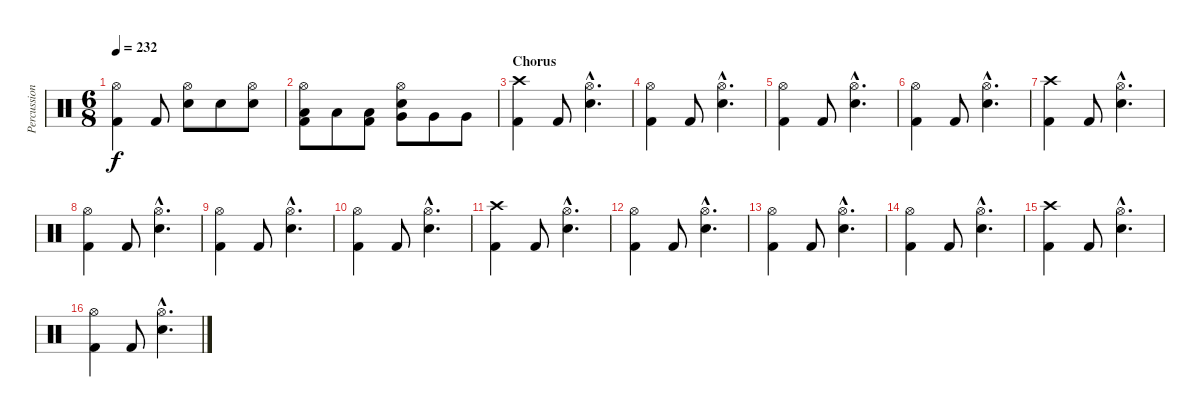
\track ("Percussion" "Percussion") {instrument percussion}
\staff {score}
\articulation defaults
\ts (6 8)
\tempo 232
\clef neutral
\ks c
("Hi-Hat (open)" "Kick (hit) 2").4{dy f} "Kick (hit) 2".8 ("Hi-Hat (open)" "Electric Snare (hit)").8 "Electric Snare (hit)".8 ("Hi-Hat (open)" "Electric Snare (hit)").8 |
("Hi-Hat (open)" "Low Tom (hit)" "Kick (hit) 2").8 "Low Tom (hit)".8 ("Low Tom (hit)" "Kick (hit) 2").8 ("Hi-Hat (open)" "Electric Snare (hit)" "Very Low Tom (hit)").8 "Very Low Tom (hit)".8 "Very Low Tom (hit)".8 |
\section ("" "Chorus")
("Crash high (hit)" "Kick (hit) 2").4 "Kick (hit) 2".8 ("Hi-Hat (open)"{hac} "Electric Snare (hit)"{hac}).4{d} |
("Hi-Hat (open)" "Kick (hit) 2").4 "Kick (hit) 2".8 ("Hi-Hat (open)"{hac} "Electric Snare (hit)"{hac}).4{d} |
("Hi-Hat (open)" "Kick (hit) 2").4 "Kick (hit) 2".8 ("Hi-Hat (open)"{hac} "Electric Snare (hit)"{hac}).4{d} |
("Hi-Hat (open)" "Kick (hit) 2").4 "Kick (hit) 2".8 ("Hi-Hat (open)"{hac} "Electric Snare (hit)"{hac}).4{d} |
("Crash high (hit)" "Kick (hit) 2").4 "Kick (hit) 2".8 ("Hi-Hat (open)"{hac} "Electric Snare (hit)"{hac}).4{d} |
("Hi-Hat (open)" "Kick (hit) 2").4 "Kick (hit) 2".8 ("Hi-Hat (open)"{hac} "Electric Snare (hit)"{hac}).4{d} |
("Hi-Hat (open)" "Kick (hit) 2").4 "Kick (hit) 2".8 ("Hi-Hat (open)"{hac} "Electric Snare (hit)"{hac}).4{d} |
("Hi-Hat (open)" "Kick (hit) 2").4 "Kick (hit) 2".8 ("Hi-Hat (open)"{hac} "Electric Snare (hit)"{hac}).4{d} |
("Crash high (hit)" "Kick (hit) 2").4 "Kick (hit) 2".8 ("Hi-Hat (open)"{hac} "Electric Snare (hit)"{hac}).4{d} |
("Hi-Hat (open)" "Kick (hit) 2").4 "Kick (hit) 2".8 ("Hi-Hat (open)"{hac} "Electric Snare (hit)"{hac}).4{d} |
("Hi-Hat (open)" "Kick (hit) 2").4 "Kick (hit) 2".8 ("Hi-Hat (open)"{hac} "Electric Snare (hit)"{hac}).4{d} |
("Hi-Hat (open)" "Kick (hit) 2").4 "Kick (hit) 2".8 ("Hi-Hat (open)"{hac} "Electric Snare (hit)"{hac}).4{d} |
("Crash high (hit)" "Kick (hit) 2").4 "Kick (hit) 2".8 ("Hi-Hat (open)"{hac} "Electric Snare (hit)"{hac}).4{d} |
("Hi-Hat (open)" "Kick (hit) 2").4 "Kick (hit) 2".8 ("Hi-Hat (open)"{hac} "Electric Snare (hit)"{hac}).4{d}
